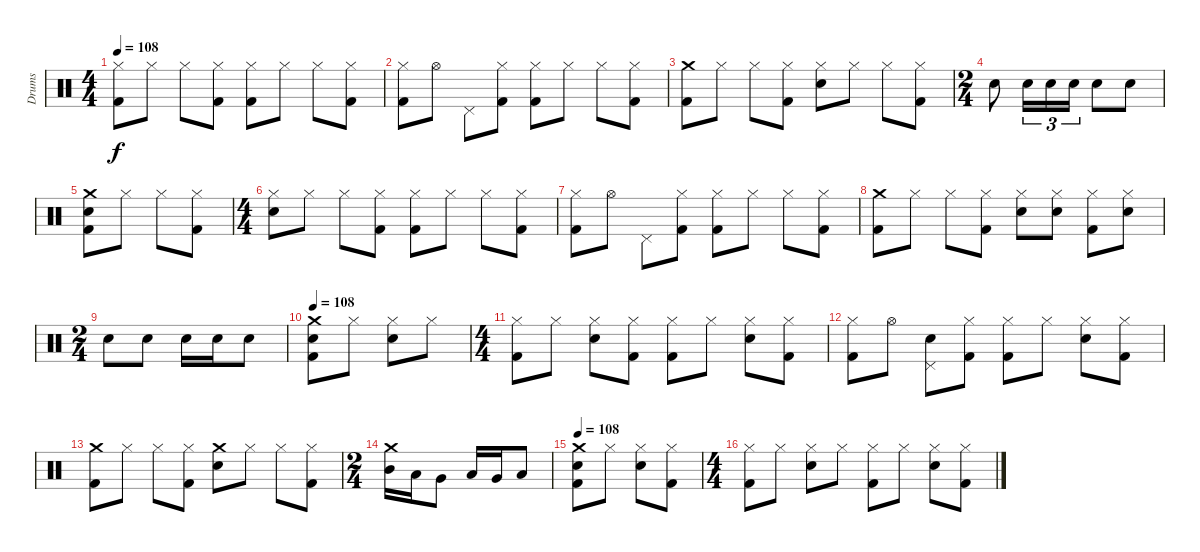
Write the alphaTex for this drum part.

\track ("Drums" "Drums") {instrument percussion}
\staff {score}
\articulation defaults
\ts (4 4)
\tempo 108
\clef neutral
\ks c
("Hi-Hat (closed)" "Kick (hit) 2").8{dy f} "Hi-Hat (closed)".8 "Hi-Hat (closed)".8 ("Hi-Hat (closed)" "Kick (hit) 2").8 ("Hi-Hat (closed)" "Kick (hit) 2").8 "Hi-Hat (closed)".8 "Hi-Hat (closed)".8 ("Hi-Hat (closed)" "Kick (hit) 2").8 |
("Hi-Hat (closed)" "Kick (hit) 2").8 "Hi-Hat (open)".8 "Pedal Hi-Hat (hit)".8 ("Hi-Hat (closed)" "Kick (hit) 2").8 ("Hi-Hat (closed)" "Kick (hit) 2").8 "Hi-Hat (closed)".8 "Hi-Hat (closed)".8 ("Hi-Hat (closed)" "Kick (hit) 2").8 |
("Crash medium (hit)" "Kick (hit) 2").8 "Hi-Hat (closed)".8 "Hi-Hat (closed)".8 ("Hi-Hat (closed)" "Kick (hit) 2").8 ("Hi-Hat (closed)" "Snare (hit) 2").8 "Hi-Hat (closed)".8 "Hi-Hat (closed)".8 ("Hi-Hat (closed)" "Kick (hit) 2").8 |
\ts (2 4)
"Snare (hit) 2".8 "Snare (hit) 2".16{tu (3 2)} "Snare (hit) 2".16{tu (3 2)} "Snare (hit) 2".16{tu (3 2)} "Snare (hit) 2".8 "Snare (hit) 2".8 |
("Crash medium (hit)" "Snare (hit) 2" "Kick (hit) 2").8 "Hi-Hat (closed)".8 "Hi-Hat (closed)".8 ("Hi-Hat (closed)" "Kick (hit) 2").8 |
\ts (4 4)
("Hi-Hat (closed)" "Snare (hit) 2").8 "Hi-Hat (closed)".8 "Hi-Hat (closed)".8 ("Hi-Hat (closed)" "Kick (hit) 2").8 ("Hi-Hat (closed)" "Kick (hit) 2").8 "Hi-Hat (closed)".8 "Hi-Hat (closed)".8 ("Hi-Hat (closed)" "Kick (hit) 2").8 |
("Hi-Hat (closed)" "Kick (hit) 2").8 "Hi-Hat (open)".8 "Pedal Hi-Hat (hit)".8 ("Hi-Hat (closed)" "Kick (hit) 2").8 ("Hi-Hat (closed)" "Kick (hit) 2").8 "Hi-Hat (closed)".8 "Hi-Hat (closed)".8 ("Hi-Hat (closed)" "Kick (hit) 2").8 |
("Crash medium (hit)" "Kick (hit) 2").8 "Hi-Hat (closed)".8 "Hi-Hat (closed)".8 ("Hi-Hat (closed)" "Kick (hit) 2").8 ("Hi-Hat (closed)" "Snare (hit) 2").8 ("Hi-Hat (closed)" "Snare (hit) 2").8 ("Hi-Hat (closed)" "Kick (hit) 2").8 ("Hi-Hat (closed)" "Snare (hit) 2").8 |
\ts (2 4)
"Snare (hit) 2".8 "Snare (hit) 2".8 "Snare (hit) 2".16 "Snare (hit) 2".16 "Snare (hit) 2".8 |
\tempo 108
("Crash medium (hit)" "Snare (hit) 2" "Kick (hit) 2").8 "Hi-Hat (closed)".8 ("Hi-Hat (closed)" "Snare (hit) 2").8 "Hi-Hat (closed)".8 |
\ts (4 4)
("Hi-Hat (closed)" "Kick (hit) 2").8 "Hi-Hat (closed)".8 ("Hi-Hat (closed)" "Snare (hit) 2").8 ("Hi-Hat (closed)" "Kick (hit) 2").8 ("Hi-Hat (closed)" "Kick (hit) 2").8 "Hi-Hat (closed)".8 ("Hi-Hat (closed)" "Snare (hit) 2").8 ("Hi-Hat (closed)" "Kick (hit) 2").8 |
("Hi-Hat (closed)" "Kick (hit) 2").8 "Hi-Hat (open)".8 ("Pedal Hi-Hat (hit)" "Snare (hit) 2").8 ("Hi-Hat (closed)" "Kick (hit) 2").8 ("Hi-Hat (closed)" "Kick (hit) 2").8 "Hi-Hat (closed)".8 ("Hi-Hat (closed)" "Snare (hit) 2").8 ("Hi-Hat (closed)" "Kick (hit) 2").8 |
("Crash medium (hit)" "Kick (hit) 2").8 "Hi-Hat (closed)".8 "Hi-Hat (closed)".8 ("Hi-Hat (closed)" "Kick (hit) 2").8 ("Crash medium (hit)" "Snare (hit) 2").8 "Hi-Hat (closed)".8 "Hi-Hat (closed)".8 ("Hi-Hat (closed)" "Kick (hit) 2").8 |
\ts (2 4)
("Crash medium (hit)" "Mid Tom (hit)").16 "Low Tom (hit)".16 "Very Low Tom (hit)".8 "Low Tom (hit)".16 "Very Low Tom (hit)".16 "Low Floor Tom (hit)".8 |
\tempo 108
("Crash medium (hit)" "Snare (hit) 2" "Kick (hit) 2").8 "Hi-Hat (closed)".8 ("Hi-Hat (closed)" "Snare (hit) 2").8 ("Hi-Hat (closed)" "Kick (hit) 2").8 |
\ts (4 4)
("Hi-Hat (closed)" "Kick (hit) 2").8 "Hi-Hat (closed)".8 ("Hi-Hat (closed)" "Snare (hit) 2").8 "Hi-Hat (closed)".8 ("Hi-Hat (closed)" "Kick (hit) 2").8 "Hi-Hat (closed)".8 ("Hi-Hat (closed)" "Snare (hit) 2").8 ("Hi-Hat (closed)" "Kick (hit) 2").8
